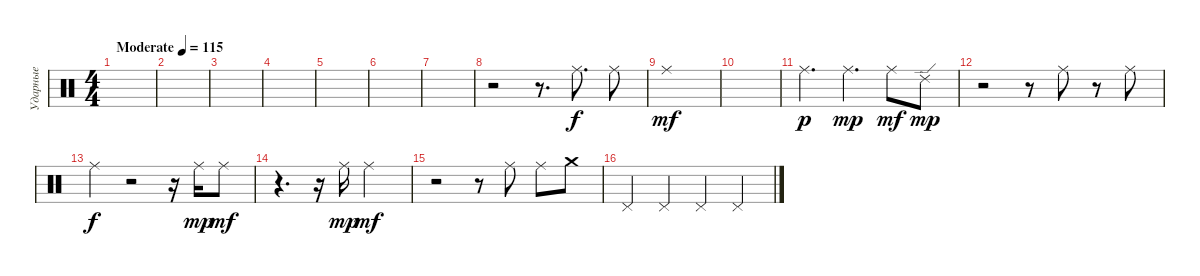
\track ("Ударные" "Ударные") {instrument percussion}
\staff {score}
\articulation defaults
\ts (4 4)
\tempo (115 "Moderate")
\clef neutral
\ks c
|
|
|
|
|
|
|
r.2 r.8{d} "Ride (middle)".8{d} "Ride (middle)".8 |
"Ride (middle)".1{dy mf} |
|
"Ride (middle)".4{d dy p} "Ride (middle)".4{d dy mp} "Ride (middle)".8{dy mf} "Ride (edge) 2".8{dy mp} |
r.2 r.8 "Ride (middle)".8 r.8 "Ride (middle)".8 |
"Ride (middle)".4{dy f} r.2 r.16 "Ride (middle)".16{dy mp} "Ride (middle)".8{dy mf} |
r.4{d} r.16 "Ride (middle)".16{dy mp} "Ride (middle)".2{dy mf} |
r.2 r.8 "Ride (middle)".8 "Ride (middle)".8 "Crash medium (hit)".8 |
"Pedal Hi-Hat (hit)".4 "Pedal Hi-Hat (hit)".4 "Pedal Hi-Hat (hit)".4 "Pedal Hi-Hat (hit)".4
